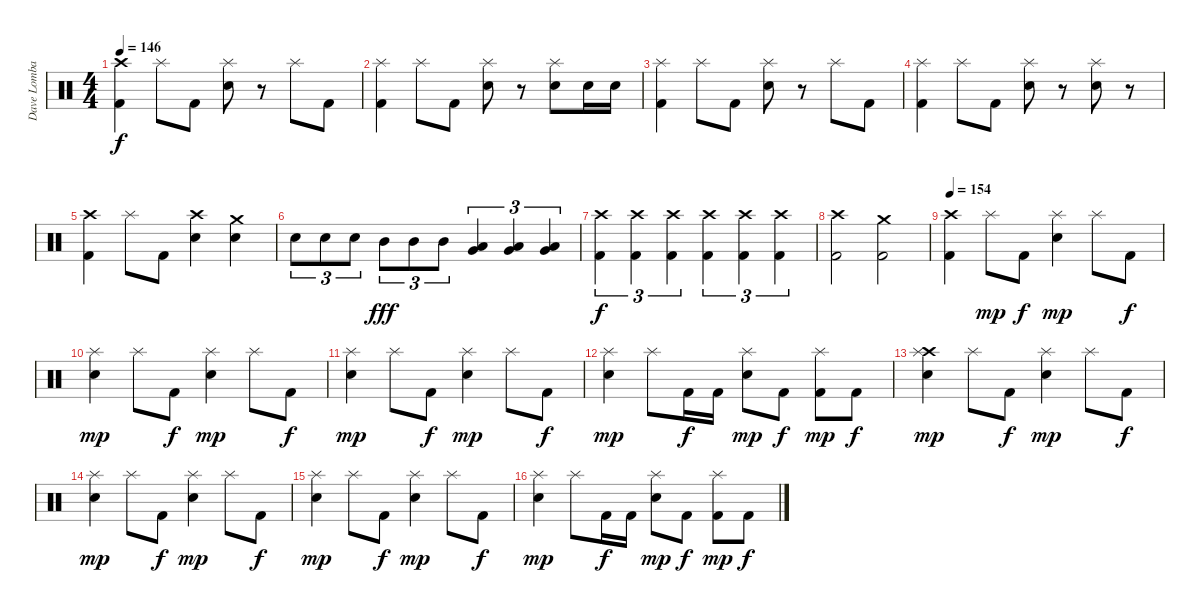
\track ("Dave Lombardo" "Dave Lomba") {instrument percussion}
\staff {score}
\articulation defaults
\ts (4 4)
\tempo 146
\clef neutral
\ks c
("Crash high (hit)" "Kick (hit) 2").4{dy f} "Splash (hit)".8 "Kick (hit) 2".8 ("Splash (hit)" "Snare (hit) 2").8 r.8 "Splash (hit)".8 "Kick (hit) 2".8 |
("Splash (hit)" "Kick (hit) 2").4 "Splash (hit)".8 "Kick (hit) 2".8 ("Splash (hit)" "Snare (hit) 2").8 r.8 ("Splash (hit)" "Snare (hit) 2").8 "Snare (hit) 2".16 "Snare (hit) 2".16 |
("Splash (hit)" "Kick (hit) 2").4 "Splash (hit)".8 "Kick (hit) 2".8 ("Splash (hit)" "Snare (hit) 2").8 r.8 "Splash (hit)".8 "Kick (hit) 2".8 |
("Splash (hit)" "Kick (hit) 2").4 "Splash (hit)".8 "Kick (hit) 2".8 ("Splash (hit)" "Snare (hit) 2").8 r.8 ("Splash (hit)" "Snare (hit) 2").8 r.8 |
("Crash high (hit)" "Kick (hit) 2").4 "Splash (hit)".8 "Kick (hit) 2".8 ("Crash high (hit)" "Snare (hit) 2").4 ("Crash medium (hit)" "Snare (hit) 2").4 |
"Snare (hit) 2".8{tu (3 2)} "Snare (hit) 2".8{tu (3 2)} "Snare (hit) 2".8{tu (3 2)} "Mid Tom (hit)".8{tu (3 2) dy fff} "Mid Tom (hit)".8{tu (3 2)} "Mid Tom (hit)".8{tu (3 2)} ("Low Tom (hit)" "Very Low Tom (hit)").4{tu (3 2)} ("Low Tom (hit)" "Very Low Tom (hit)").4{tu (3 2)} ("Low Tom (hit)" "Very Low Tom (hit)").4{tu (3 2)} |
("Crash high (hit)" "Kick (hit) 2").4{tu (3 2) dy f} ("Crash high (hit)" "Kick (hit) 2").4{tu (3 2)} ("Crash high (hit)" "Kick (hit) 2").4{tu (3 2)} ("Crash high (hit)" "Kick (hit) 2").4{tu (3 2)} ("Crash high (hit)" "Kick (hit) 2").4{tu (3 2)} ("Crash high (hit)" "Kick (hit) 2").4{tu (3 2)} |
("Crash high (hit)" "Kick (hit) 2").2 ("Crash medium (hit)" "Kick (hit) 2").2 |
\tempo 154
("Crash high (hit)" "Kick (hit) 2").4 "Splash (hit)".8{dy mp} "Kick (hit) 2".8{dy f} ("Splash (hit)" "Snare (hit) 2").4{dy mp} "Splash (hit)".8 "Kick (hit) 2".8{dy f} |
("Splash (hit)" "Snare (hit) 2").4{dy mp} "Splash (hit)".8 "Kick (hit) 2".8{dy f} ("Splash (hit)" "Snare (hit) 2").4{dy mp} "Splash (hit)".8 "Kick (hit) 2".8{dy f} |
("Splash (hit)" "Snare (hit) 2").4{dy mp} "Splash (hit)".8 "Kick (hit) 2".8{dy f} ("Splash (hit)" "Snare (hit) 2").4{dy mp} "Splash (hit)".8 "Kick (hit) 2".8{dy f} |
("Splash (hit)" "Snare (hit) 2").4{dy mp} "Splash (hit)".8 "Kick (hit) 2".16{dy f} "Kick (hit) 2".16 ("Splash (hit)" "Snare (hit) 2").8{dy mp} "Kick (hit) 2".8{dy f} ("Splash (hit)" "Kick (hit) 2").8{dy mp} "Kick (hit) 2".8{dy f} |
("Crash high (hit)" "Splash (hit)" "Snare (hit) 2").4{dy mp} "Splash (hit)".8 "Kick (hit) 2".8{dy f} ("Splash (hit)" "Snare (hit) 2").4{dy mp} "Splash (hit)".8 "Kick (hit) 2".8{dy f} |
("Splash (hit)" "Snare (hit) 2").4{dy mp} "Splash (hit)".8 "Kick (hit) 2".8{dy f} ("Splash (hit)" "Snare (hit) 2").4{dy mp} "Splash (hit)".8 "Kick (hit) 2".8{dy f} |
("Splash (hit)" "Snare (hit) 2").4{dy mp} "Splash (hit)".8 "Kick (hit) 2".8{dy f} ("Splash (hit)" "Snare (hit) 2").4{dy mp} "Splash (hit)".8 "Kick (hit) 2".8{dy f} |
("Splash (hit)" "Snare (hit) 2").4{dy mp} "Splash (hit)".8 "Kick (hit) 2".16{dy f} "Kick (hit) 2".16 ("Splash (hit)" "Snare (hit) 2").8{dy mp} "Kick (hit) 2".8{dy f} ("Splash (hit)" "Kick (hit) 2").8{dy mp} "Kick (hit) 2".8{dy f}
